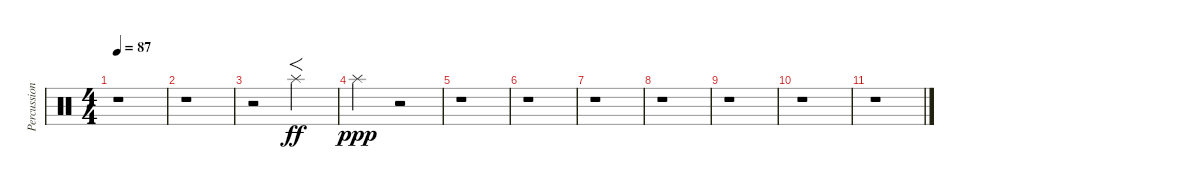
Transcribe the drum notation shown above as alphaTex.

\track ("Percussion" "Percussion") {instrument percussion}
\staff {score}
\articulation defaults
\ts (4 4)
\tempo 87
\clef neutral
\ks c
r.1{dy ppp} |
r.1 |
r.2 "Splash (hit)".2{f dy ff} |
"Splash (hit)".2{dy ppp} r.2 |
r.1 |
r.1 |
r.1 |
r.1 |
r.1 |
r.1 |
r.1
